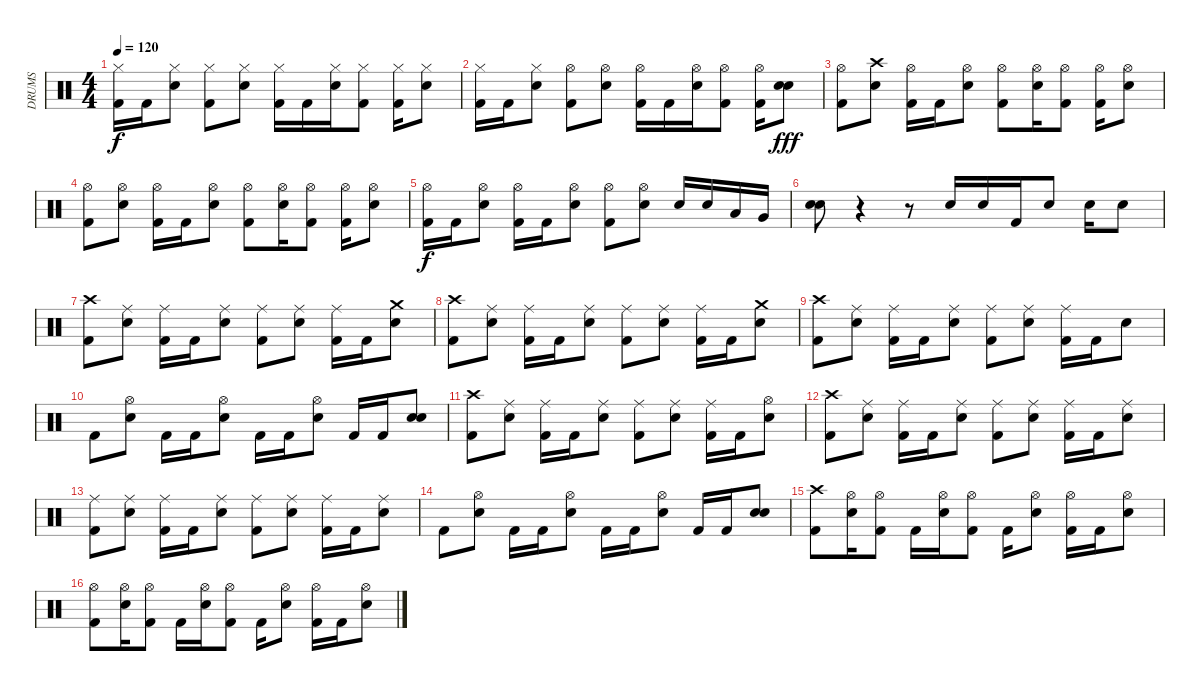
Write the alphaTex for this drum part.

\track ("DRUMS" "DRUMS") {instrument percussion}
\staff {score}
\articulation defaults
\ts (4 4)
\tempo 120
\clef neutral
\ks c
("Hi-Hat (closed)" "Kick (hit) 2").16{dy f} "Kick (hit) 2".16 ("Hi-Hat (closed)" "Snare (hit) 2").8 ("Hi-Hat (closed)" "Kick (hit) 2").8 ("Hi-Hat (closed)" "Snare (hit) 2").8 ("Hi-Hat (closed)" "Kick (hit) 2").16 "Kick (hit) 2".16 ("Hi-Hat (closed)" "Snare (hit) 2").16 ("Hi-Hat (closed)" "Kick (hit) 2").8 ("Hi-Hat (closed)" "Kick (hit) 2").16 ("Hi-Hat (closed)" "Snare (hit) 2").8 |
("Hi-Hat (closed)" "Kick (hit) 2").16 "Kick (hit) 2".16 ("Hi-Hat (closed)" "Snare (hit) 2").8 ("Hi-Hat (open)" "Kick (hit) 2").8 ("Hi-Hat (open)" "Snare (hit) 2").8 ("Hi-Hat (open)" "Kick (hit) 2").16 "Kick (hit) 2".16 ("Hi-Hat (open)" "Snare (hit) 2").16 ("Hi-Hat (open)" "Kick (hit) 2").8 ("Hi-Hat (open)" "Kick (hit) 2").16 ("Snare (hit) 2" "Snare (hit) 2").8{dy fff} |
("Hi-Hat (open)" "Kick (hit) 2").8 ("Crash high (hit)" "Snare (hit) 2").8 ("Hi-Hat (open)" "Kick (hit) 2").16 "Kick (hit) 2".16 ("Hi-Hat (open)" "Snare (hit) 2").8 ("Hi-Hat (open)" "Kick (hit) 2").8 ("Hi-Hat (open)" "Snare (hit) 2").16 ("Hi-Hat (open)" "Kick (hit) 2").8 ("Hi-Hat (open)" "Kick (hit) 2").16 ("Hi-Hat (open)" "Snare (hit) 2").8 |
("Hi-Hat (open)" "Kick (hit) 2").8 ("Hi-Hat (open)" "Snare (hit) 2").8 ("Hi-Hat (open)" "Kick (hit) 2").16 "Kick (hit) 2".16 ("Hi-Hat (open)" "Snare (hit) 2").8 ("Hi-Hat (open)" "Kick (hit) 2").8 ("Hi-Hat (open)" "Snare (hit) 2").16 ("Hi-Hat (open)" "Kick (hit) 2").8 ("Hi-Hat (open)" "Kick (hit) 2").16 ("Hi-Hat (open)" "Snare (hit) 2").8 |
("Hi-Hat (open)" "Kick (hit) 2").16{dy f} "Kick (hit) 2".16 ("Hi-Hat (open)" "Snare (hit) 2").8 ("Hi-Hat (open)" "Kick (hit) 2").16 "Kick (hit) 2".16 ("Hi-Hat (open)" "Snare (hit) 2").8 ("Hi-Hat (open)" "Kick (hit) 2").8 ("Hi-Hat (open)" "Snare (hit) 2").8 "Snare (hit) 2".16 "Snare (hit) 2".16 "Low Tom (hit)".16 "Very Low Tom (hit)".16 |
("Snare (hit) 2" "Snare (hit) 2").8 r.4 r.8 "Snare (hit) 2".16 "Snare (hit) 2".16 "Kick (hit) 2".16 "Snare (hit) 2".8 "Snare (hit) 2".16 "Snare (hit) 2".8 |
("Crash high (hit)" "Kick (hit) 2").8 ("Ride (middle)" "Snare (hit) 2").8 ("Ride (middle)" "Kick (hit) 2").16 "Kick (hit) 2".16 ("Ride (middle)" "Snare (hit) 2").8 ("Ride (middle)" "Kick (hit) 2").8 ("Ride (middle)" "Snare (hit) 2").8 ("Ride (middle)" "Kick (hit) 2").16 "Kick (hit) 2".16 ("Crash medium (hit)" "Snare (hit) 2").8 |
("Crash high (hit)" "Kick (hit) 2").8 ("Ride (middle)" "Snare (hit) 2").8 ("Ride (middle)" "Kick (hit) 2").16 "Kick (hit) 2".16 ("Ride (middle)" "Snare (hit) 2").8 ("Ride (middle)" "Kick (hit) 2").8 ("Ride (middle)" "Snare (hit) 2").8 ("Ride (middle)" "Kick (hit) 2").16 "Kick (hit) 2".16 ("Crash medium (hit)" "Snare (hit) 2").8 |
("Crash high (hit)" "Kick (hit) 2").8 ("Ride (middle)" "Snare (hit) 2").8 ("Ride (middle)" "Kick (hit) 2").16 "Kick (hit) 2".16 ("Ride (middle)" "Snare (hit) 2").8 ("Ride (middle)" "Kick (hit) 2").8 ("Ride (middle)" "Snare (hit) 2").8 ("Ride (middle)" "Kick (hit) 2").16 "Kick (hit) 2".16 "Snare (hit) 2".8 |
"Kick (hit) 2".8 ("Hi-Hat (open)" "Snare (hit) 2").8 "Kick (hit) 2".16 "Kick (hit) 2".16 ("Hi-Hat (open)" "Snare (hit) 2").8 "Kick (hit) 2".16 "Kick (hit) 2".16 ("Hi-Hat (open)" "Snare (hit) 2").8 "Kick (hit) 2".16 "Kick (hit) 2".16 ("Snare (hit) 2" "Snare (hit) 2").8 |
("Crash high (hit)" "Kick (hit) 2").8 ("Ride (middle)" "Snare (hit) 2").8 ("Ride (middle)" "Kick (hit) 2").16 "Kick (hit) 2".16 ("Ride (middle)" "Snare (hit) 2").8 ("Ride (middle)" "Kick (hit) 2").8 ("Ride (middle)" "Snare (hit) 2").8 ("Ride (middle)" "Kick (hit) 2").16 "Kick (hit) 2".16 ("Hi-Hat (open)" "Snare (hit) 2").8 |
("Crash high (hit)" "Kick (hit) 2").8 ("Ride (middle)" "Snare (hit) 2").8 ("Ride (middle)" "Kick (hit) 2").16 "Kick (hit) 2".16 ("Ride (middle)" "Snare (hit) 2").8 ("Ride (middle)" "Kick (hit) 2").8 ("Ride (middle)" "Snare (hit) 2").8 ("Ride (middle)" "Kick (hit) 2").16 "Kick (hit) 2".16 ("Ride (middle)" "Snare (hit) 2").8 |
("Ride (middle)" "Kick (hit) 2").8 ("Ride (middle)" "Snare (hit) 2").8 ("Ride (middle)" "Kick (hit) 2").16 "Kick (hit) 2".16 ("Ride (middle)" "Snare (hit) 2").8 ("Ride (middle)" "Kick (hit) 2").8 ("Ride (middle)" "Snare (hit) 2").8 ("Ride (middle)" "Kick (hit) 2").16 "Kick (hit) 2".16 ("Ride (middle)" "Snare (hit) 2").8 |
"Kick (hit) 2".8 ("Hi-Hat (open)" "Snare (hit) 2").8 "Kick (hit) 2".16 "Kick (hit) 2".16 ("Hi-Hat (open)" "Snare (hit) 2").8 "Kick (hit) 2".16 "Kick (hit) 2".16 ("Hi-Hat (open)" "Snare (hit) 2").8 "Kick (hit) 2".16 "Kick (hit) 2".16 ("Snare (hit) 2" "Snare (hit) 2").8 |
("Crash high (hit)" "Kick (hit) 2").8 ("Hi-Hat (open)" "Snare (hit) 2").16 ("Hi-Hat (open)" "Kick (hit) 2").8 "Kick (hit) 2".16 ("Hi-Hat (open)" "Snare (hit) 2").16 ("Hi-Hat (open)" "Kick (hit) 2").8 "Kick (hit) 2".16 ("Hi-Hat (open)" "Snare (hit) 2").8 ("Hi-Hat (open)" "Kick (hit) 2").16 "Kick (hit) 2".16 ("Hi-Hat (open)" "Snare (hit) 2").8 |
("Hi-Hat (open)" "Kick (hit) 2").8 ("Hi-Hat (open)" "Snare (hit) 2").16 ("Hi-Hat (open)" "Kick (hit) 2").8 "Kick (hit) 2".16 ("Hi-Hat (open)" "Snare (hit) 2").16 ("Hi-Hat (open)" "Kick (hit) 2").8 "Kick (hit) 2".16 ("Hi-Hat (open)" "Snare (hit) 2").8 ("Hi-Hat (open)" "Kick (hit) 2").16 "Kick (hit) 2".16 ("Hi-Hat (open)" "Snare (hit) 2").8
